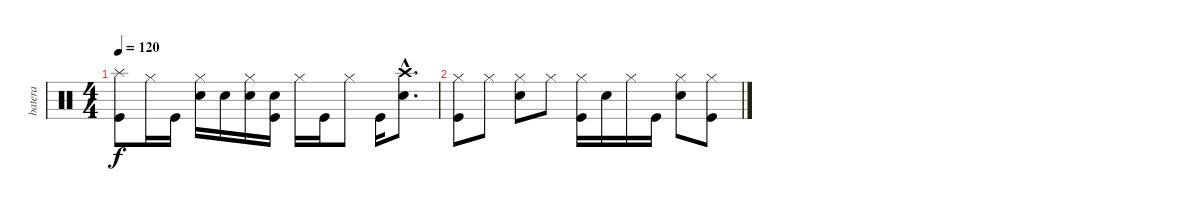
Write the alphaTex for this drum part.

\track ("batera" "batera") {instrument percussion}
\staff {score}
\articulation defaults
\ts (4 4)
\tempo 120
\clef neutral
\ks c
("Splash (hit)" "Kick (hit)").8{dy f} "Hi-Hat (closed)".16 "Kick (hit)".16 ("Hi-Hat (closed)" "Snare (hit) 2").16 "Snare (hit) 2".16 ("Hi-Hat (closed)" "Snare (hit) 2").16 ("Snare (hit) 2" "Kick (hit)").16 "Hi-Hat (closed)".16 "Kick (hit)".16 "Hi-Hat (closed)".8 "Kick (hit)".16 ("Crash high (hit)"{hac} "Snare (hit) 2"{hac}).8{d} |
("Hi-Hat (closed)" "Kick (hit)").8 "Hi-Hat (closed)".8 ("Hi-Hat (closed)" "Snare (hit) 2").8 "Hi-Hat (closed)".8 ("Hi-Hat (closed)" "Kick (hit)").16 "Snare (hit) 2".16 "Hi-Hat (closed)".16 "Kick (hit)".16 ("Hi-Hat (closed)" "Snare (hit) 2").8 ("Hi-Hat (closed)" "Kick (hit)").8
